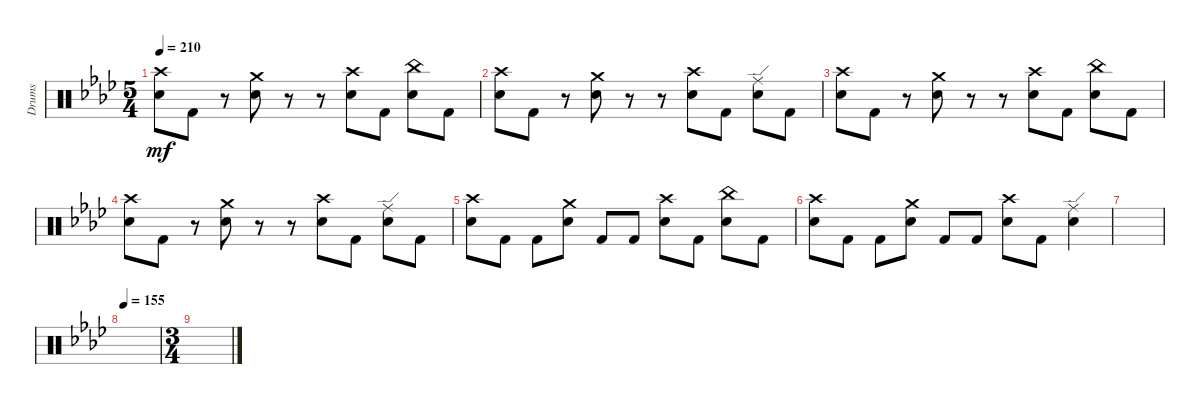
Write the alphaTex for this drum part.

\defaultSystemsLayout 4
\bracketExtendMode nobrackets
\otherSystemsTrackNameOrientation horizontal
\track ("Drumkit" "Drums") {instrument percussion}
\staff {score}
\articulation defaults
\ts (5 4)
\tempo 210
\clef neutral
\ks ab
("Snare (hit) 2"{acc forcenatural} "Crash high (hit)"{acc forcenatural}).8{dy mf} "Kick (hit) 2"{acc forcenatural}.8 r.8 ("Snare (hit) 2"{acc forcenatural} "Crash medium (hit)"{acc forcenatural}).8 r.8 r.8 ("Snare (hit) 2"{acc forcenatural} "Crash high (hit)"{acc forcenatural}).8 "Kick (hit) 2"{acc forcenatural}.8 ("Snare (hit) 2"{acc forcenatural} "China (hit)"{acc forcenatural}).8 "Kick (hit) 2"{acc forcenatural}.8 |
("Snare (hit) 2"{acc forcenatural} "Crash high (hit)"{acc forcenatural}).8 "Kick (hit) 2"{acc forcenatural}.8 r.8 ("Snare (hit) 2"{acc forcenatural} "Crash medium (hit)"{acc forcenatural}).8 r.8 r.8 ("Snare (hit) 2"{acc forcenatural} "Crash high (hit)"{acc forcenatural}).8 "Kick (hit) 2"{acc forcenatural}.8 ("Snare (hit) 2"{acc forcenatural} "Ride (edge)"{acc forcenatural}).8 "Kick (hit) 2"{acc forcenatural}.8 |
("Snare (hit) 2"{acc forcenatural} "Crash high (hit)"{acc forcenatural}).8 "Kick (hit) 2"{acc forcenatural}.8 r.8 ("Snare (hit) 2"{acc forcenatural} "Crash medium (hit)"{acc forcenatural}).8 r.8 r.8 ("Snare (hit) 2"{acc forcenatural} "Crash high (hit)"{acc forcenatural}).8 "Kick (hit) 2"{acc forcenatural}.8 ("Snare (hit) 2"{acc forcenatural} "China (hit)"{acc forcenatural}).8 "Kick (hit) 2"{acc forcenatural}.8 |
("Snare (hit) 2"{acc forcenatural} "Crash high (hit)"{acc forcenatural}).8 "Kick (hit) 2"{acc forcenatural}.8 r.8 ("Snare (hit) 2"{acc forcenatural} "Crash medium (hit)"{acc forcenatural}).8 r.8 r.8 ("Snare (hit) 2"{acc forcenatural} "Crash high (hit)"{acc forcenatural}).8 "Kick (hit) 2"{acc forcenatural}.8 ("Snare (hit) 2"{acc forcenatural} "Ride (edge)"{acc forcenatural}).8 "Kick (hit) 2"{acc forcenatural}.8 |
("Snare (hit) 2"{acc forcenatural} "Crash high (hit)"{acc forcenatural}).8 "Kick (hit) 2"{acc forcenatural}.8 "Kick (hit) 2"{acc forcenatural}.8 ("Snare (hit) 2"{acc forcenatural} "Crash medium (hit)"{acc forcenatural}).8 "Kick (hit) 2"{acc forcenatural}.8 "Kick (hit) 2"{acc forcenatural}.8 ("Snare (hit) 2"{acc forcenatural} "Crash high (hit)"{acc forcenatural}).8 "Kick (hit) 2"{acc forcenatural}.8 ("Snare (hit) 2"{acc forcenatural} "China (hit)"{acc forcenatural}).8 "Kick (hit) 2"{acc forcenatural}.8 |
("Snare (hit) 2"{acc forcenatural} "Crash high (hit)"{acc forcenatural}).8 "Kick (hit) 2"{acc forcenatural}.8 "Kick (hit) 2"{acc forcenatural}.8 ("Snare (hit) 2"{acc forcenatural} "Crash medium (hit)"{acc forcenatural}).8 "Kick (hit) 2"{acc forcenatural}.8 "Kick (hit) 2"{acc forcenatural}.8 ("Snare (hit) 2"{acc forcenatural} "Crash high (hit)"{acc forcenatural}).8 "Kick (hit) 2"{acc forcenatural}.8 ("Snare (hit) 2"{acc forcenatural} "Ride (edge)"{acc forcenatural}).4 |
|
\tempo (155 0.025)
|
\ts (3 4)
